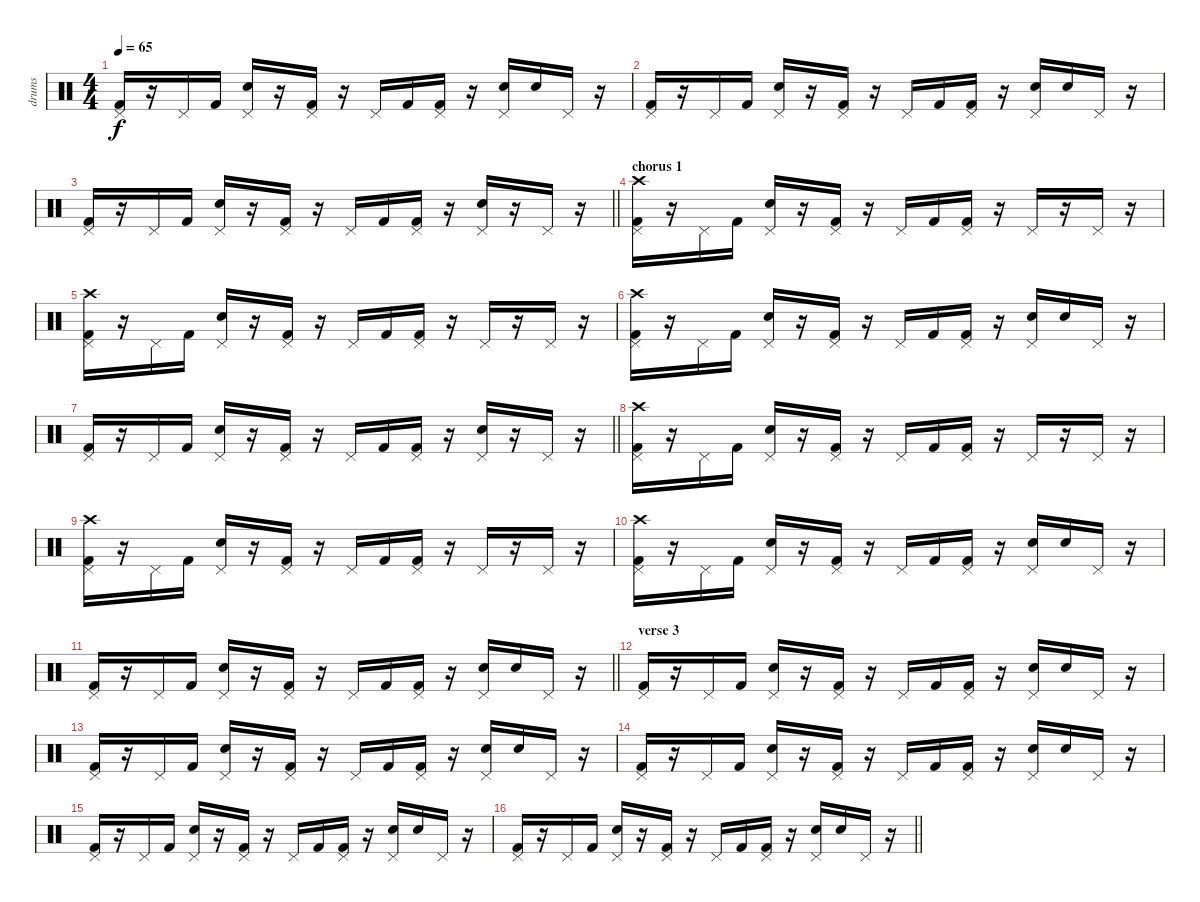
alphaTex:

\track ("drums" "drums") {instrument percussion}
\staff {score}
\articulation defaults
\ts (4 4)
\tempo 65
\clef neutral
\ks c
("Kick (hit) 2" "Pedal Hi-Hat (hit)").16{dy f} r.16 "Pedal Hi-Hat (hit)".16 "Kick (hit) 2".16 ("Electric Snare (hit)" "Pedal Hi-Hat (hit)").16 r.16 ("Kick (hit) 2" "Pedal Hi-Hat (hit)").16 r.16 "Pedal Hi-Hat (hit)".16 "Kick (hit) 2".16 ("Kick (hit) 2" "Pedal Hi-Hat (hit)").16 r.16 ("Electric Snare (hit)" "Pedal Hi-Hat (hit)").16 "Electric Snare (hit)".16 "Pedal Hi-Hat (hit)".16 r.16 |
("Kick (hit) 2" "Pedal Hi-Hat (hit)").16 r.16 "Pedal Hi-Hat (hit)".16 "Kick (hit) 2".16 ("Electric Snare (hit)" "Pedal Hi-Hat (hit)").16 r.16 ("Kick (hit) 2" "Pedal Hi-Hat (hit)").16 r.16 "Pedal Hi-Hat (hit)".16 "Kick (hit) 2".16 ("Kick (hit) 2" "Pedal Hi-Hat (hit)").16 r.16 ("Electric Snare (hit)" "Pedal Hi-Hat (hit)").16 "Electric Snare (hit)".16 "Pedal Hi-Hat (hit)".16 r.16 |
\barLineRight lightlight
("Kick (hit) 2" "Pedal Hi-Hat (hit)").16 r.16 "Pedal Hi-Hat (hit)".16 "Kick (hit) 2".16 ("Electric Snare (hit)" "Pedal Hi-Hat (hit)").16 r.16 ("Kick (hit) 2" "Pedal Hi-Hat (hit)").16 r.16 "Pedal Hi-Hat (hit)".16 "Kick (hit) 2".16 ("Kick (hit) 2" "Pedal Hi-Hat (hit)").16 r.16 ("Electric Snare (hit)" "Pedal Hi-Hat (hit)").16 r.16 "Pedal Hi-Hat (hit)".16 r.16 |
\section ("" "chorus 1")
("Kick (hit) 2" "Pedal Hi-Hat (hit)" "Crash high (hit)").16 r.16 "Pedal Hi-Hat (hit)".16 "Kick (hit) 2".16 ("Electric Snare (hit)" "Pedal Hi-Hat (hit)").16 r.16 ("Kick (hit) 2" "Pedal Hi-Hat (hit)").16 r.16 "Pedal Hi-Hat (hit)".16 "Kick (hit) 2".16 ("Kick (hit) 2" "Pedal Hi-Hat (hit)").16 r.16 "Pedal Hi-Hat (hit)".16 r.16 "Pedal Hi-Hat (hit)".16 r.16 |
("Kick (hit) 2" "Pedal Hi-Hat (hit)" "Crash high (hit)").16 r.16 "Pedal Hi-Hat (hit)".16 "Kick (hit) 2".16 ("Electric Snare (hit)" "Pedal Hi-Hat (hit)").16 r.16 ("Kick (hit) 2" "Pedal Hi-Hat (hit)").16 r.16 "Pedal Hi-Hat (hit)".16 "Kick (hit) 2".16 ("Kick (hit) 2" "Pedal Hi-Hat (hit)").16 r.16 "Pedal Hi-Hat (hit)".16 r.16 "Pedal Hi-Hat (hit)".16 r.16 |
("Kick (hit) 2" "Pedal Hi-Hat (hit)" "Crash high (hit)").16 r.16 "Pedal Hi-Hat (hit)".16 "Kick (hit) 2".16 ("Electric Snare (hit)" "Pedal Hi-Hat (hit)").16 r.16 ("Kick (hit) 2" "Pedal Hi-Hat (hit)").16 r.16 "Pedal Hi-Hat (hit)".16 "Kick (hit) 2".16 ("Kick (hit) 2" "Pedal Hi-Hat (hit)").16 r.16 ("Electric Snare (hit)" "Pedal Hi-Hat (hit)").16 "Electric Snare (hit)".16 "Pedal Hi-Hat (hit)".16 r.16 |
\barLineRight lightlight
("Kick (hit) 2" "Pedal Hi-Hat (hit)").16 r.16 "Pedal Hi-Hat (hit)".16 "Kick (hit) 2".16 ("Electric Snare (hit)" "Pedal Hi-Hat (hit)").16 r.16 ("Kick (hit) 2" "Pedal Hi-Hat (hit)").16 r.16 "Pedal Hi-Hat (hit)".16 "Kick (hit) 2".16 ("Kick (hit) 2" "Pedal Hi-Hat (hit)").16 r.16 ("Electric Snare (hit)" "Pedal Hi-Hat (hit)").16 r.16 "Pedal Hi-Hat (hit)".16 r.16 |
("Kick (hit) 2" "Pedal Hi-Hat (hit)" "Crash high (hit)").16 r.16 "Pedal Hi-Hat (hit)".16 "Kick (hit) 2".16 ("Electric Snare (hit)" "Pedal Hi-Hat (hit)").16 r.16 ("Kick (hit) 2" "Pedal Hi-Hat (hit)").16 r.16 "Pedal Hi-Hat (hit)".16 "Kick (hit) 2".16 ("Kick (hit) 2" "Pedal Hi-Hat (hit)").16 r.16 "Pedal Hi-Hat (hit)".16 r.16 "Pedal Hi-Hat (hit)".16 r.16 |
("Kick (hit) 2" "Pedal Hi-Hat (hit)" "Crash high (hit)").16 r.16 "Pedal Hi-Hat (hit)".16 "Kick (hit) 2".16 ("Electric Snare (hit)" "Pedal Hi-Hat (hit)").16 r.16 ("Kick (hit) 2" "Pedal Hi-Hat (hit)").16 r.16 "Pedal Hi-Hat (hit)".16 "Kick (hit) 2".16 ("Kick (hit) 2" "Pedal Hi-Hat (hit)").16 r.16 "Pedal Hi-Hat (hit)".16 r.16 "Pedal Hi-Hat (hit)".16 r.16 |
("Kick (hit) 2" "Pedal Hi-Hat (hit)" "Crash high (hit)").16 r.16 "Pedal Hi-Hat (hit)".16 "Kick (hit) 2".16 ("Electric Snare (hit)" "Pedal Hi-Hat (hit)").16 r.16 ("Kick (hit) 2" "Pedal Hi-Hat (hit)").16 r.16 "Pedal Hi-Hat (hit)".16 "Kick (hit) 2".16 ("Kick (hit) 2" "Pedal Hi-Hat (hit)").16 r.16 ("Electric Snare (hit)" "Pedal Hi-Hat (hit)").16 "Electric Snare (hit)".16 "Pedal Hi-Hat (hit)".16 r.16 |
\barLineRight lightlight
("Kick (hit) 2" "Pedal Hi-Hat (hit)").16 r.16 "Pedal Hi-Hat (hit)".16 "Kick (hit) 2".16 ("Electric Snare (hit)" "Pedal Hi-Hat (hit)").16 r.16 ("Kick (hit) 2" "Pedal Hi-Hat (hit)").16 r.16 "Pedal Hi-Hat (hit)".16 "Kick (hit) 2".16 ("Kick (hit) 2" "Pedal Hi-Hat (hit)").16 r.16 ("Electric Snare (hit)" "Pedal Hi-Hat (hit)").16 "Electric Snare (hit)".16 "Pedal Hi-Hat (hit)".16 r.16 |
\section ("" "verse 3")
("Kick (hit) 2" "Pedal Hi-Hat (hit)").16 r.16 "Pedal Hi-Hat (hit)".16 "Kick (hit) 2".16 ("Electric Snare (hit)" "Pedal Hi-Hat (hit)").16 r.16 ("Kick (hit) 2" "Pedal Hi-Hat (hit)").16 r.16 "Pedal Hi-Hat (hit)".16 "Kick (hit) 2".16 ("Kick (hit) 2" "Pedal Hi-Hat (hit)").16 r.16 ("Electric Snare (hit)" "Pedal Hi-Hat (hit)").16 "Electric Snare (hit)".16 "Pedal Hi-Hat (hit)".16 r.16 |
("Kick (hit) 2" "Pedal Hi-Hat (hit)").16 r.16 "Pedal Hi-Hat (hit)".16 "Kick (hit) 2".16 ("Electric Snare (hit)" "Pedal Hi-Hat (hit)").16 r.16 ("Kick (hit) 2" "Pedal Hi-Hat (hit)").16 r.16 "Pedal Hi-Hat (hit)".16 "Kick (hit) 2".16 ("Kick (hit) 2" "Pedal Hi-Hat (hit)").16 r.16 ("Electric Snare (hit)" "Pedal Hi-Hat (hit)").16 "Electric Snare (hit)".16 "Pedal Hi-Hat (hit)".16 r.16 |
("Kick (hit) 2" "Pedal Hi-Hat (hit)").16 r.16 "Pedal Hi-Hat (hit)".16 "Kick (hit) 2".16 ("Electric Snare (hit)" "Pedal Hi-Hat (hit)").16 r.16 ("Kick (hit) 2" "Pedal Hi-Hat (hit)").16 r.16 "Pedal Hi-Hat (hit)".16 "Kick (hit) 2".16 ("Kick (hit) 2" "Pedal Hi-Hat (hit)").16 r.16 ("Electric Snare (hit)" "Pedal Hi-Hat (hit)").16 "Electric Snare (hit)".16 "Pedal Hi-Hat (hit)".16 r.16 |
("Kick (hit) 2" "Pedal Hi-Hat (hit)").16 r.16 "Pedal Hi-Hat (hit)".16 "Kick (hit) 2".16 ("Electric Snare (hit)" "Pedal Hi-Hat (hit)").16 r.16 ("Kick (hit) 2" "Pedal Hi-Hat (hit)").16 r.16 "Pedal Hi-Hat (hit)".16 "Kick (hit) 2".16 ("Kick (hit) 2" "Pedal Hi-Hat (hit)").16 r.16 ("Electric Snare (hit)" "Pedal Hi-Hat (hit)").16 "Electric Snare (hit)".16 "Pedal Hi-Hat (hit)".16 r.16 |
\barLineRight lightlight
("Kick (hit) 2" "Pedal Hi-Hat (hit)").16 r.16 "Pedal Hi-Hat (hit)".16 "Kick (hit) 2".16 ("Electric Snare (hit)" "Pedal Hi-Hat (hit)").16 r.16 ("Kick (hit) 2" "Pedal Hi-Hat (hit)").16 r.16 "Pedal Hi-Hat (hit)".16 "Kick (hit) 2".16 ("Kick (hit) 2" "Pedal Hi-Hat (hit)").16 r.16 ("Electric Snare (hit)" "Pedal Hi-Hat (hit)").16 "Electric Snare (hit)".16 "Pedal Hi-Hat (hit)".16 r.16
